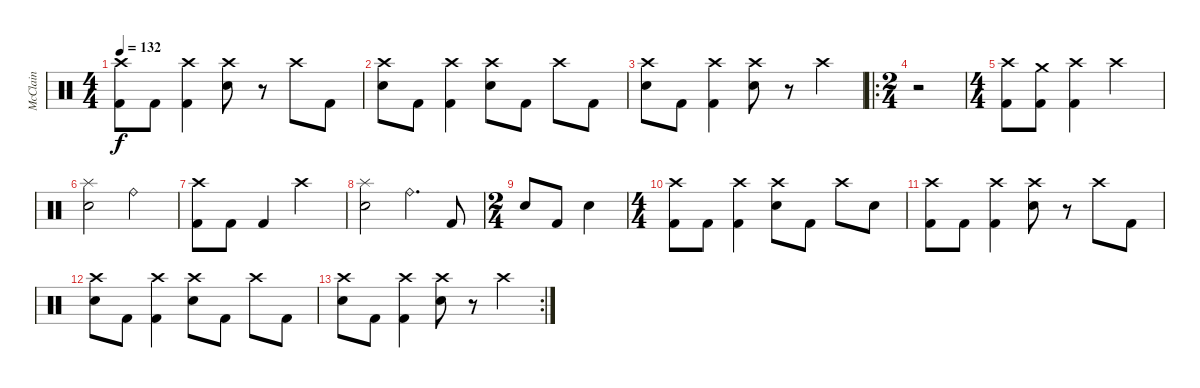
\track ("McClain" "McClain") {instrument percussion}
\staff {score}
\articulation defaults
\ts (4 4)
\tempo 132
\clef neutral
\ks c
("Crash high (hit)" "Kick (hit) 2").8{dy f} "Kick (hit) 2".8 ("Crash high (hit)" "Kick (hit) 2").4 ("Crash high (hit)" "Electric Snare (hit)").8 r.8 "Crash high (hit)".8 "Kick (hit) 2".8 |
("Crash high (hit)" "Electric Snare (hit)").8 "Kick (hit) 2".8 ("Crash high (hit)" "Kick (hit) 2").4 ("Crash high (hit)" "Electric Snare (hit)").8 "Kick (hit) 2".8 "Crash high (hit)".8 "Kick (hit) 2".8 |
("Crash high (hit)" "Electric Snare (hit)").8 "Kick (hit) 2".8 ("Crash high (hit)" "Kick (hit) 2").4 ("Crash high (hit)" "Electric Snare (hit)").8 r.8 "Crash high (hit)".4 |
\ro
\ts (2 4)
r.2 |
\ts (4 4)
("Crash high (hit)" "Kick (hit) 2").8 ("Crash medium (hit)" "Kick (hit) 2").8 ("Crash high (hit)" "Kick (hit) 2").4 "Crash high (hit)".2 |
("Splash (hit)" "Electric Snare (hit)").2 "Ride (bell)".2 |
("Crash high (hit)" "Kick (hit) 2").8 "Kick (hit) 2".8 "Kick (hit) 2".4 "Crash high (hit)".2 |
("Splash (hit)" "Electric Snare (hit)").2 "Ride (bell)".4{d} "Kick (hit) 2".8 |
\ts (2 4)
"Electric Snare (hit)".8 "Kick (hit) 2".8 "Electric Snare (hit)".4 |
\ts (4 4)
("Crash high (hit)" "Kick (hit) 2").8 "Kick (hit) 2".8 ("Crash high (hit)" "Kick (hit) 2").4 ("Crash high (hit)" "Electric Snare (hit)").8 "Kick (hit) 2".8 "Crash high (hit)".8 "Electric Snare (hit)".8 |
("Crash high (hit)" "Kick (hit) 2").8 "Kick (hit) 2".8 ("Crash high (hit)" "Kick (hit) 2").4 ("Crash high (hit)" "Electric Snare (hit)").8 r.8 "Crash high (hit)".8 "Kick (hit) 2".8 |
("Crash high (hit)" "Electric Snare (hit)").8 "Kick (hit) 2".8 ("Crash high (hit)" "Kick (hit) 2").4 ("Crash high (hit)" "Electric Snare (hit)").8 "Kick (hit) 2".8 "Crash high (hit)".8 "Kick (hit) 2".8 |
\rc 2
("Crash high (hit)" "Electric Snare (hit)").8 "Kick (hit) 2".8 ("Crash high (hit)" "Kick (hit) 2").4 ("Crash high (hit)" "Electric Snare (hit)").8 r.8 "Crash high (hit)".4
